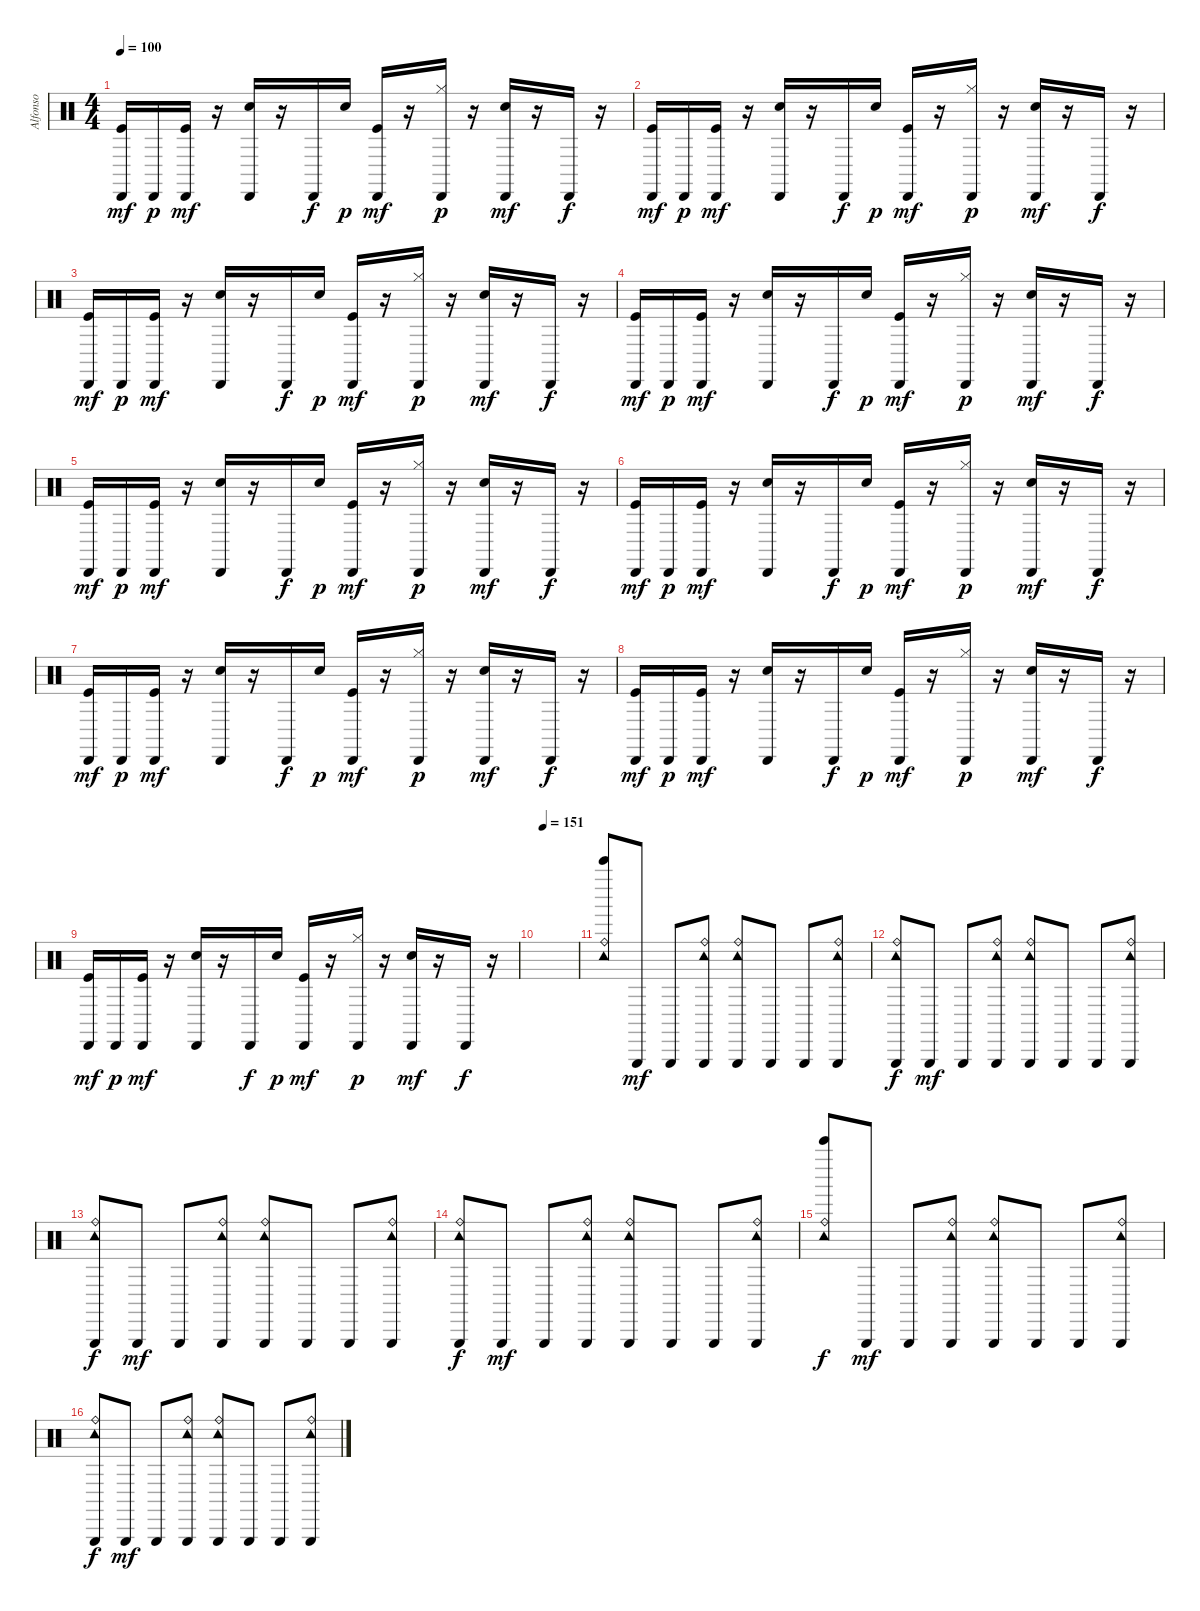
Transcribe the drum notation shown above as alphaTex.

\track ("Alfonso" "Alfonso") {instrument percussion}
\staff {score}
\articulation defaults
\ts (4 4)
\tempo 100
\clef neutral
\ks c
("Kick (hit)" "Cabasa (hit)").16{dy mf} "Cabasa (hit)".16{dy p} ("Kick (hit)" "Cabasa (hit)").16{dy mf} r.16 ("Electric Snare (hit)" "Cabasa (hit)").16 r.16 "Cabasa (hit)".16{dy f} "Electric Snare (hit)".16{dy p} ("Kick (hit)" "Cabasa (hit)").16{dy mf} r.16 ("Hi-Hat (closed)" "Cabasa (hit)").16{dy p} r.16 ("Electric Snare (hit)" "Cabasa (hit)").16{dy mf} r.16 "Cabasa (hit)".16{dy f} r.16 |
("Kick (hit)" "Cabasa (hit)").16{dy mf} "Cabasa (hit)".16{dy p} ("Kick (hit)" "Cabasa (hit)").16{dy mf} r.16 ("Electric Snare (hit)" "Cabasa (hit)").16 r.16 "Cabasa (hit)".16{dy f} "Electric Snare (hit)".16{dy p} ("Kick (hit)" "Cabasa (hit)").16{dy mf} r.16 ("Hi-Hat (closed)" "Cabasa (hit)").16{dy p} r.16 ("Electric Snare (hit)" "Cabasa (hit)").16{dy mf} r.16 "Cabasa (hit)".16{dy f} r.16 |
("Kick (hit)" "Cabasa (hit)").16{dy mf} "Cabasa (hit)".16{dy p} ("Kick (hit)" "Cabasa (hit)").16{dy mf} r.16 ("Electric Snare (hit)" "Cabasa (hit)").16 r.16 "Cabasa (hit)".16{dy f} "Electric Snare (hit)".16{dy p} ("Kick (hit)" "Cabasa (hit)").16{dy mf} r.16 ("Hi-Hat (closed)" "Cabasa (hit)").16{dy p} r.16 ("Electric Snare (hit)" "Cabasa (hit)").16{dy mf} r.16 "Cabasa (hit)".16{dy f} r.16 |
("Kick (hit)" "Cabasa (hit)").16{dy mf} "Cabasa (hit)".16{dy p} ("Kick (hit)" "Cabasa (hit)").16{dy mf} r.16 ("Electric Snare (hit)" "Cabasa (hit)").16 r.16 "Cabasa (hit)".16{dy f} "Electric Snare (hit)".16{dy p} ("Kick (hit)" "Cabasa (hit)").16{dy mf} r.16 ("Hi-Hat (closed)" "Cabasa (hit)").16{dy p} r.16 ("Electric Snare (hit)" "Cabasa (hit)").16{dy mf} r.16 "Cabasa (hit)".16{dy f} r.16 |
("Kick (hit)" "Cabasa (hit)").16{dy mf} "Cabasa (hit)".16{dy p} ("Kick (hit)" "Cabasa (hit)").16{dy mf} r.16 ("Electric Snare (hit)" "Cabasa (hit)").16 r.16 "Cabasa (hit)".16{dy f} "Electric Snare (hit)".16{dy p} ("Kick (hit)" "Cabasa (hit)").16{dy mf} r.16 ("Hi-Hat (closed)" "Cabasa (hit)").16{dy p} r.16 ("Electric Snare (hit)" "Cabasa (hit)").16{dy mf} r.16 "Cabasa (hit)".16{dy f} r.16 |
("Kick (hit)" "Cabasa (hit)").16{dy mf} "Cabasa (hit)".16{dy p} ("Kick (hit)" "Cabasa (hit)").16{dy mf} r.16 ("Electric Snare (hit)" "Cabasa (hit)").16 r.16 "Cabasa (hit)".16{dy f} "Electric Snare (hit)".16{dy p} ("Kick (hit)" "Cabasa (hit)").16{dy mf} r.16 ("Hi-Hat (closed)" "Cabasa (hit)").16{dy p} r.16 ("Electric Snare (hit)" "Cabasa (hit)").16{dy mf} r.16 "Cabasa (hit)".16{dy f} r.16 |
("Kick (hit)" "Cabasa (hit)").16{dy mf} "Cabasa (hit)".16{dy p} ("Kick (hit)" "Cabasa (hit)").16{dy mf} r.16 ("Electric Snare (hit)" "Cabasa (hit)").16 r.16 "Cabasa (hit)".16{dy f} "Electric Snare (hit)".16{dy p} ("Kick (hit)" "Cabasa (hit)").16{dy mf} r.16 ("Hi-Hat (closed)" "Cabasa (hit)").16{dy p} r.16 ("Electric Snare (hit)" "Cabasa (hit)").16{dy mf} r.16 "Cabasa (hit)".16{dy f} r.16 |
("Kick (hit)" "Cabasa (hit)").16{dy mf} "Cabasa (hit)".16{dy p} ("Kick (hit)" "Cabasa (hit)").16{dy mf} r.16 ("Electric Snare (hit)" "Cabasa (hit)").16 r.16 "Cabasa (hit)".16{dy f} "Electric Snare (hit)".16{dy p} ("Kick (hit)" "Cabasa (hit)").16{dy mf} r.16 ("Hi-Hat (closed)" "Cabasa (hit)").16{dy p} r.16 ("Electric Snare (hit)" "Cabasa (hit)").16{dy mf} r.16 "Cabasa (hit)".16{dy f} r.16 |
("Kick (hit)" "Cabasa (hit)").16{dy mf} "Cabasa (hit)".16{dy p} ("Kick (hit)" "Cabasa (hit)").16{dy mf} r.16 ("Electric Snare (hit)" "Cabasa (hit)").16 r.16 "Cabasa (hit)".16{dy f} "Electric Snare (hit)".16{dy p} ("Kick (hit)" "Cabasa (hit)").16{dy mf} r.16 ("Hi-Hat (closed)" "Cabasa (hit)").16{dy p} r.16 ("Electric Snare (hit)" "Cabasa (hit)").16{dy mf} r.16 "Cabasa (hit)".16{dy f} r.16 |
\tempo (151 0.125)
|
("Bell Tree (hit)" "Ride (bell)" "Tambourine (hit)").8 "Triangle (hit)".8{dy mf} "Triangle (hit)".8 ("Triangle (hit)" "Ride (bell)" "Tambourine (hit)").8 ("Triangle (hit)" "Ride (bell)" "Tambourine (hit)").8 "Triangle (hit)".8 "Triangle (hit)".8 ("Triangle (hit)" "Ride (bell)" "Tambourine (hit)").8 |
("Triangle (hit)" "Ride (bell)" "Tambourine (hit)").8{dy f} "Triangle (hit)".8{dy mf} "Triangle (hit)".8 ("Triangle (hit)" "Ride (bell)" "Tambourine (hit)").8 ("Triangle (hit)" "Ride (bell)" "Tambourine (hit)").8 "Triangle (hit)".8 "Triangle (hit)".8 ("Triangle (hit)" "Ride (bell)" "Tambourine (hit)").8 |
("Triangle (hit)" "Ride (bell)" "Tambourine (hit)").8{dy f} "Triangle (hit)".8{dy mf} "Triangle (hit)".8 ("Triangle (hit)" "Ride (bell)" "Tambourine (hit)").8 ("Triangle (hit)" "Ride (bell)" "Tambourine (hit)").8 "Triangle (hit)".8 "Triangle (hit)".8 ("Triangle (hit)" "Ride (bell)" "Tambourine (hit)").8 |
("Triangle (hit)" "Ride (bell)" "Tambourine (hit)").8{dy f} "Triangle (hit)".8{dy mf} "Triangle (hit)".8 ("Triangle (hit)" "Ride (bell)" "Tambourine (hit)").8 ("Triangle (hit)" "Ride (bell)" "Tambourine (hit)").8 "Triangle (hit)".8 "Triangle (hit)".8 ("Triangle (hit)" "Ride (bell)" "Tambourine (hit)").8 |
("Bell Tree (hit)" "Ride (bell)" "Tambourine (hit)").8{dy f} "Triangle (hit)".8{dy mf} "Triangle (hit)".8 ("Triangle (hit)" "Ride (bell)" "Tambourine (hit)").8 ("Triangle (hit)" "Ride (bell)" "Tambourine (hit)").8 "Triangle (hit)".8 "Triangle (hit)".8 ("Triangle (hit)" "Ride (bell)" "Tambourine (hit)").8 |
("Triangle (hit)" "Ride (bell)" "Tambourine (hit)").8{dy f} "Triangle (hit)".8{dy mf} "Triangle (hit)".8 ("Triangle (hit)" "Ride (bell)" "Tambourine (hit)").8 ("Triangle (hit)" "Ride (bell)" "Tambourine (hit)").8 "Triangle (hit)".8 "Triangle (hit)".8 ("Triangle (hit)" "Ride (bell)" "Tambourine (hit)").8
